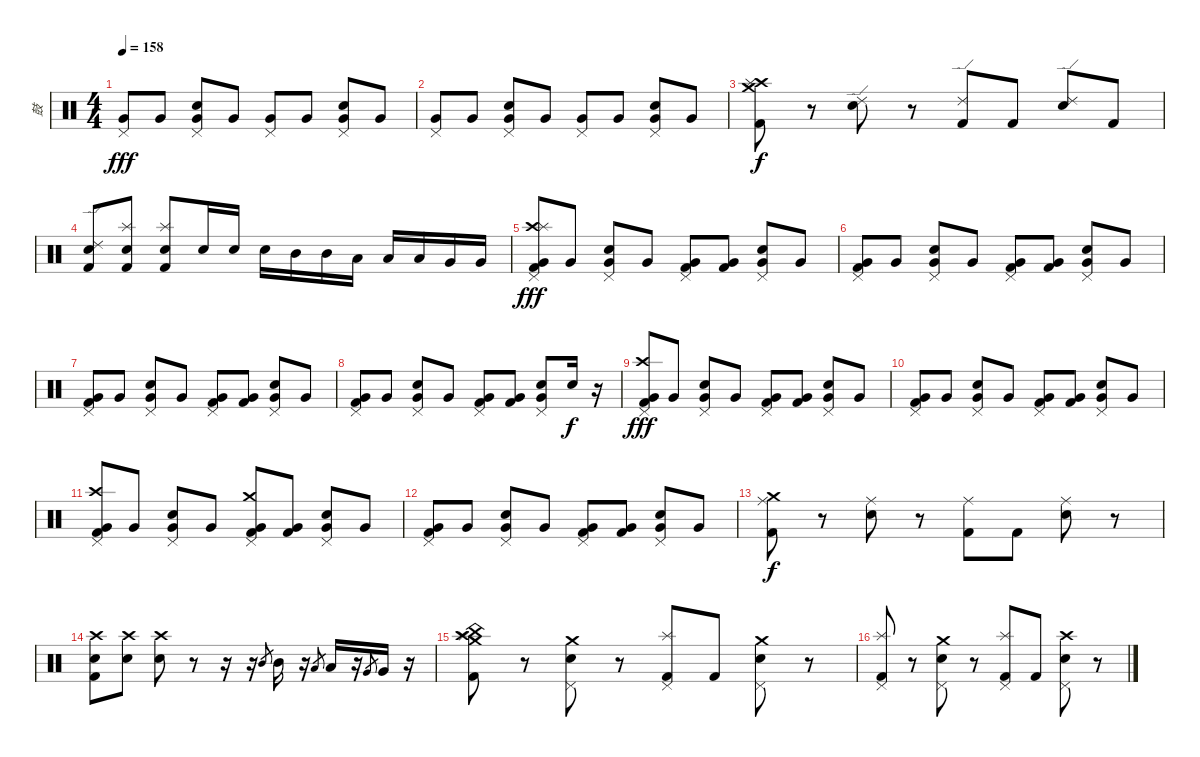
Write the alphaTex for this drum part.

\track ("鼓" "鼓") {instrument percussion}
\staff {score}
\articulation defaults
\ts (4 4)
\tempo 158
\clef neutral
\ks c
("Pedal Hi-Hat (hit)" "Very Low Tom (hit)").8{dy fff} "Very Low Tom (hit)".8 ("Pedal Hi-Hat (hit)" "Electric Snare (hit)" "Very Low Tom (hit)").8 "Very Low Tom (hit)".8 ("Pedal Hi-Hat (hit)" "Very Low Tom (hit)").8 "Very Low Tom (hit)".8 ("Pedal Hi-Hat (hit)" "Electric Snare (hit)" "Very Low Tom (hit)").8 "Very Low Tom (hit)".8 |
("Pedal Hi-Hat (hit)" "Very Low Tom (hit)").8 "Very Low Tom (hit)".8 ("Pedal Hi-Hat (hit)" "Electric Snare (hit)" "Very Low Tom (hit)").8 "Very Low Tom (hit)".8 ("Pedal Hi-Hat (hit)" "Very Low Tom (hit)").8 "Very Low Tom (hit)".8 ("Pedal Hi-Hat (hit)" "Electric Snare (hit)" "Very Low Tom (hit)").8 "Very Low Tom (hit)".8 |
("Crash high (hit)" "Splash (hit)" "Crash medium (hit)" "Kick (hit) 2").8{dy f} r.8 ("Ride (edge) 2" "Electric Snare (hit)").8 r.8 ("Ride (edge) 2" "Kick (hit) 2").8 "Kick (hit) 2".8 ("Ride (edge) 2" "Electric Snare (hit)").8 "Kick (hit) 2".8 |
("Ride (edge) 2" "Electric Snare (hit)" "Kick (hit) 2").8 ("Splash (hit)" "Electric Snare (hit)" "Kick (hit) 2").8 ("Splash (hit)" "Electric Snare (hit)" "Kick (hit) 2").8 "Electric Snare (hit)".16 "Electric Snare (hit)".16 "Electric Snare (hit)".16 "Mid Tom (hit)".16 "Mid Tom (hit)".16 "Low Tom (hit)".16 "Low Tom (hit)".16 "Low Tom (hit)".16 "Very Low Tom (hit)".16 "Very Low Tom (hit)".16 |
("Crash high (hit)" "Pedal Hi-Hat (hit)" "Splash (hit)" "Kick (hit) 2" "Very Low Tom (hit)").8{dy fff} "Very Low Tom (hit)".8 ("Pedal Hi-Hat (hit)" "Electric Snare (hit)" "Very Low Tom (hit)").8 "Very Low Tom (hit)".8 ("Pedal Hi-Hat (hit)" "Kick (hit) 2" "Very Low Tom (hit)").8 ("Kick (hit) 2" "Very Low Tom (hit)").8 ("Pedal Hi-Hat (hit)" "Electric Snare (hit)" "Very Low Tom (hit)").8 "Very Low Tom (hit)".8 |
("Pedal Hi-Hat (hit)" "Kick (hit) 2" "Very Low Tom (hit)").8 "Very Low Tom (hit)".8 ("Pedal Hi-Hat (hit)" "Electric Snare (hit)" "Very Low Tom (hit)").8 "Very Low Tom (hit)".8 ("Pedal Hi-Hat (hit)" "Kick (hit) 2" "Very Low Tom (hit)").8 ("Kick (hit) 2" "Very Low Tom (hit)").8 ("Pedal Hi-Hat (hit)" "Electric Snare (hit)" "Very Low Tom (hit)").8 "Very Low Tom (hit)".8 |
("Pedal Hi-Hat (hit)" "Kick (hit) 2" "Very Low Tom (hit)").8 "Very Low Tom (hit)".8 ("Pedal Hi-Hat (hit)" "Electric Snare (hit)" "Very Low Tom (hit)").8 "Very Low Tom (hit)".8 ("Pedal Hi-Hat (hit)" "Kick (hit) 2" "Very Low Tom (hit)").8 ("Kick (hit) 2" "Very Low Tom (hit)").8 ("Pedal Hi-Hat (hit)" "Electric Snare (hit)" "Very Low Tom (hit)").8 "Very Low Tom (hit)".8 |
("Pedal Hi-Hat (hit)" "Kick (hit) 2" "Very Low Tom (hit)").8 "Very Low Tom (hit)".8 ("Pedal Hi-Hat (hit)" "Electric Snare (hit)" "Very Low Tom (hit)").8 "Very Low Tom (hit)".8 ("Pedal Hi-Hat (hit)" "Kick (hit) 2" "Very Low Tom (hit)").8 ("Kick (hit) 2" "Very Low Tom (hit)").8 ("Pedal Hi-Hat (hit)" "Electric Snare (hit)" "Very Low Tom (hit)").8 "Electric Snare (hit)".16{dy f} r.16 |
("Crash high (hit)" "Pedal Hi-Hat (hit)" "Kick (hit) 2" "Very Low Tom (hit)").8{dy fff} "Very Low Tom (hit)".8 ("Pedal Hi-Hat (hit)" "Electric Snare (hit)" "Very Low Tom (hit)").8 "Very Low Tom (hit)".8 ("Pedal Hi-Hat (hit)" "Kick (hit) 2" "Very Low Tom (hit)").8 ("Kick (hit) 2" "Very Low Tom (hit)").8 ("Pedal Hi-Hat (hit)" "Electric Snare (hit)" "Very Low Tom (hit)").8 "Very Low Tom (hit)".8 |
("Pedal Hi-Hat (hit)" "Kick (hit) 2" "Very Low Tom (hit)").8 "Very Low Tom (hit)".8 ("Pedal Hi-Hat (hit)" "Electric Snare (hit)" "Very Low Tom (hit)").8 "Very Low Tom (hit)".8 ("Pedal Hi-Hat (hit)" "Kick (hit) 2" "Very Low Tom (hit)").8 ("Kick (hit) 2" "Very Low Tom (hit)").8 ("Pedal Hi-Hat (hit)" "Electric Snare (hit)" "Very Low Tom (hit)").8 "Very Low Tom (hit)".8 |
("Crash high (hit)" "Pedal Hi-Hat (hit)" "Kick (hit) 2" "Very Low Tom (hit)").8 "Very Low Tom (hit)".8 ("Pedal Hi-Hat (hit)" "Electric Snare (hit)" "Very Low Tom (hit)").8 "Very Low Tom (hit)".8 ("Crash medium (hit)" "Pedal Hi-Hat (hit)" "Kick (hit) 2" "Very Low Tom (hit)").8 ("Kick (hit) 2" "Very Low Tom (hit)").8 ("Pedal Hi-Hat (hit)" "Electric Snare (hit)" "Very Low Tom (hit)").8 "Very Low Tom (hit)".8 |
("Pedal Hi-Hat (hit)" "Kick (hit) 2" "Very Low Tom (hit)").8 "Very Low Tom (hit)".8 ("Pedal Hi-Hat (hit)" "Electric Snare (hit)" "Very Low Tom (hit)").8 "Very Low Tom (hit)".8 ("Pedal Hi-Hat (hit)" "Kick (hit) 2" "Very Low Tom (hit)").8 ("Kick (hit) 2" "Very Low Tom (hit)").8 ("Pedal Hi-Hat (hit)" "Electric Snare (hit)" "Very Low Tom (hit)").8 "Very Low Tom (hit)".8 |
("Ride (middle)" "Crash medium (hit)" "Kick (hit) 2").8{dy f} r.8 ("Ride (middle)" "Electric Snare (hit)").8 r.8 ("Ride (middle)" "Kick (hit) 2").8 "Kick (hit) 2".8 ("Ride (middle)" "Electric Snare (hit)").8 r.8 |
("Crash high (hit)" "Electric Snare (hit)" "Kick (hit) 2").8 ("Crash high (hit)" "Electric Snare (hit)").8 ("Crash high (hit)" "Electric Snare (hit)").8 r.8 r.16 r.16 "Mid Tom (hit)".8{gr} "Mid Tom (hit)".16 r.16 "Low Tom (hit)".8{gr} "Low Tom (hit)".16 r.16 "Very Low Tom (hit)".8{gr} "Very Low Tom (hit)".16 r.16 |
("Crash high (hit)" "Splash (hit)" "Crash medium (hit)" "China (hit)" "Kick (hit) 2").8 r.8 ("Crash medium (hit)" "Pedal Hi-Hat (hit)" "Electric Snare (hit)").8 r.8 ("Splash (hit)" "Pedal Hi-Hat (hit)" "Kick (hit) 2").8 "Kick (hit) 2".8 ("Crash medium (hit)" "Pedal Hi-Hat (hit)" "Electric Snare (hit)").8 r.8 |
("Splash (hit)" "Pedal Hi-Hat (hit)" "Kick (hit) 2").8 r.8 ("Crash medium (hit)" "Pedal Hi-Hat (hit)" "Electric Snare (hit)").8 r.8 ("Splash (hit)" "Pedal Hi-Hat (hit)" "Kick (hit) 2").8 "Kick (hit) 2".8 ("Crash high (hit)" "Pedal Hi-Hat (hit)" "Electric Snare (hit)").8 r.8
